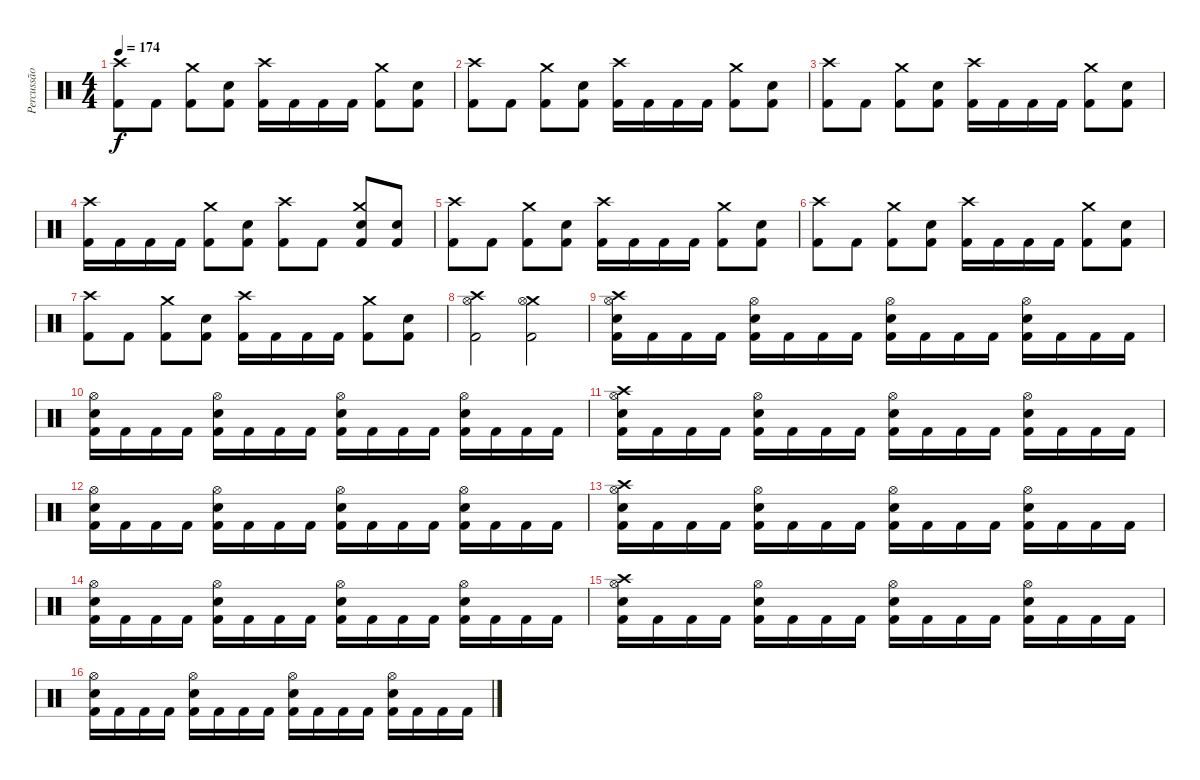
\track ("Percussão" "Percussão") {instrument percussion}
\staff {score}
\articulation defaults
\ts (4 4)
\tempo 174
\clef neutral
\ks c
("Crash high (hit)" "Kick (hit) 2").8{dy f} "Kick (hit) 2".8 ("Crash medium (hit)" "Kick (hit) 2").8 ("Electric Snare (hit)" "Kick (hit) 2").8 ("Crash high (hit)" "Kick (hit) 2").16 "Kick (hit) 2".16 "Kick (hit) 2".16 "Kick (hit) 2".16 ("Crash medium (hit)" "Kick (hit) 2").8 ("Electric Snare (hit)" "Kick (hit) 2").8 |
("Crash high (hit)" "Kick (hit) 2").8 "Kick (hit) 2".8 ("Crash medium (hit)" "Kick (hit) 2").8 ("Electric Snare (hit)" "Kick (hit) 2").8 ("Crash high (hit)" "Kick (hit) 2").16 "Kick (hit) 2".16 "Kick (hit) 2".16 "Kick (hit) 2".16 ("Crash medium (hit)" "Kick (hit) 2").8 ("Electric Snare (hit)" "Kick (hit) 2").8 |
("Crash high (hit)" "Kick (hit) 2").8 "Kick (hit) 2".8 ("Crash medium (hit)" "Kick (hit) 2").8 ("Electric Snare (hit)" "Kick (hit) 2").8 ("Crash high (hit)" "Kick (hit) 2").16 "Kick (hit) 2".16 "Kick (hit) 2".16 "Kick (hit) 2".16 ("Crash medium (hit)" "Kick (hit) 2").8 ("Electric Snare (hit)" "Kick (hit) 2").8 |
("Crash high (hit)" "Kick (hit) 2").16 "Kick (hit) 2".16 "Kick (hit) 2".16 "Kick (hit) 2".16 ("Crash medium (hit)" "Kick (hit) 2").8 ("Electric Snare (hit)" "Kick (hit) 2").8 ("Crash high (hit)" "Kick (hit) 2").8 "Kick (hit) 2".8 ("Crash medium (hit)" "Electric Snare (hit)" "Kick (hit) 2").8 ("Electric Snare (hit)" "Kick (hit) 2").8 |
("Crash high (hit)" "Kick (hit) 2").8 "Kick (hit) 2".8 ("Crash medium (hit)" "Kick (hit) 2").8 ("Electric Snare (hit)" "Kick (hit) 2").8 ("Crash high (hit)" "Kick (hit) 2").16 "Kick (hit) 2".16 "Kick (hit) 2".16 "Kick (hit) 2".16 ("Crash medium (hit)" "Kick (hit) 2").8 ("Electric Snare (hit)" "Kick (hit) 2").8 |
("Crash high (hit)" "Kick (hit) 2").8 "Kick (hit) 2".8 ("Crash medium (hit)" "Kick (hit) 2").8 ("Electric Snare (hit)" "Kick (hit) 2").8 ("Crash high (hit)" "Kick (hit) 2").16 "Kick (hit) 2".16 "Kick (hit) 2".16 "Kick (hit) 2".16 ("Crash medium (hit)" "Kick (hit) 2").8 ("Electric Snare (hit)" "Kick (hit) 2").8 |
("Crash high (hit)" "Kick (hit) 2").8 "Kick (hit) 2".8 ("Crash medium (hit)" "Kick (hit) 2").8 ("Electric Snare (hit)" "Kick (hit) 2").8 ("Crash high (hit)" "Kick (hit) 2").16 "Kick (hit) 2".16 "Kick (hit) 2".16 "Kick (hit) 2".16 ("Crash medium (hit)" "Kick (hit) 2").8 ("Electric Snare (hit)" "Kick (hit) 2").8 |
("Crash high (hit)" "Hi-Hat (open)" "Kick (hit) 2").2 ("Crash medium (hit)" "Hi-Hat (open)" "Kick (hit) 2").2 |
("Crash high (hit)" "Hi-Hat (open)" "Electric Snare (hit)" "Kick (hit) 2").16 "Kick (hit) 2".16 "Kick (hit) 2".16 "Kick (hit) 2".16 ("Hi-Hat (open)" "Electric Snare (hit)" "Kick (hit) 2").16 "Kick (hit) 2".16 "Kick (hit) 2".16 "Kick (hit) 2".16 ("Hi-Hat (open)" "Electric Snare (hit)" "Kick (hit) 2").16 "Kick (hit) 2".16 "Kick (hit) 2".16 "Kick (hit) 2".16 ("Hi-Hat (open)" "Electric Snare (hit)" "Kick (hit) 2").16 "Kick (hit) 2".16 "Kick (hit) 2".16 "Kick (hit) 2".16 |
("Hi-Hat (open)" "Electric Snare (hit)" "Kick (hit) 2").16 "Kick (hit) 2".16 "Kick (hit) 2".16 "Kick (hit) 2".16 ("Hi-Hat (open)" "Electric Snare (hit)" "Kick (hit) 2").16 "Kick (hit) 2".16 "Kick (hit) 2".16 "Kick (hit) 2".16 ("Hi-Hat (open)" "Electric Snare (hit)" "Kick (hit) 2").16 "Kick (hit) 2".16 "Kick (hit) 2".16 "Kick (hit) 2".16 ("Hi-Hat (open)" "Electric Snare (hit)" "Kick (hit) 2").16 "Kick (hit) 2".16 "Kick (hit) 2".16 "Kick (hit) 2".16 |
("Crash high (hit)" "Hi-Hat (open)" "Electric Snare (hit)" "Kick (hit) 2").16 "Kick (hit) 2".16 "Kick (hit) 2".16 "Kick (hit) 2".16 ("Hi-Hat (open)" "Electric Snare (hit)" "Kick (hit) 2").16 "Kick (hit) 2".16 "Kick (hit) 2".16 "Kick (hit) 2".16 ("Hi-Hat (open)" "Electric Snare (hit)" "Kick (hit) 2").16 "Kick (hit) 2".16 "Kick (hit) 2".16 "Kick (hit) 2".16 ("Hi-Hat (open)" "Electric Snare (hit)" "Kick (hit) 2").16 "Kick (hit) 2".16 "Kick (hit) 2".16 "Kick (hit) 2".16 |
("Hi-Hat (open)" "Electric Snare (hit)" "Kick (hit) 2").16 "Kick (hit) 2".16 "Kick (hit) 2".16 "Kick (hit) 2".16 ("Hi-Hat (open)" "Electric Snare (hit)" "Kick (hit) 2").16 "Kick (hit) 2".16 "Kick (hit) 2".16 "Kick (hit) 2".16 ("Hi-Hat (open)" "Electric Snare (hit)" "Kick (hit) 2").16 "Kick (hit) 2".16 "Kick (hit) 2".16 "Kick (hit) 2".16 ("Hi-Hat (open)" "Electric Snare (hit)" "Kick (hit) 2").16 "Kick (hit) 2".16 "Kick (hit) 2".16 "Kick (hit) 2".16 |
("Crash high (hit)" "Hi-Hat (open)" "Electric Snare (hit)" "Kick (hit) 2").16 "Kick (hit) 2".16 "Kick (hit) 2".16 "Kick (hit) 2".16 ("Hi-Hat (open)" "Electric Snare (hit)" "Kick (hit) 2").16 "Kick (hit) 2".16 "Kick (hit) 2".16 "Kick (hit) 2".16 ("Hi-Hat (open)" "Electric Snare (hit)" "Kick (hit) 2").16 "Kick (hit) 2".16 "Kick (hit) 2".16 "Kick (hit) 2".16 ("Hi-Hat (open)" "Electric Snare (hit)" "Kick (hit) 2").16 "Kick (hit) 2".16 "Kick (hit) 2".16 "Kick (hit) 2".16 |
("Hi-Hat (open)" "Electric Snare (hit)" "Kick (hit) 2").16 "Kick (hit) 2".16 "Kick (hit) 2".16 "Kick (hit) 2".16 ("Hi-Hat (open)" "Electric Snare (hit)" "Kick (hit) 2").16 "Kick (hit) 2".16 "Kick (hit) 2".16 "Kick (hit) 2".16 ("Hi-Hat (open)" "Electric Snare (hit)" "Kick (hit) 2").16 "Kick (hit) 2".16 "Kick (hit) 2".16 "Kick (hit) 2".16 ("Hi-Hat (open)" "Electric Snare (hit)" "Kick (hit) 2").16 "Kick (hit) 2".16 "Kick (hit) 2".16 "Kick (hit) 2".16 |
("Crash high (hit)" "Hi-Hat (open)" "Electric Snare (hit)" "Kick (hit) 2").16 "Kick (hit) 2".16 "Kick (hit) 2".16 "Kick (hit) 2".16 ("Hi-Hat (open)" "Electric Snare (hit)" "Kick (hit) 2").16 "Kick (hit) 2".16 "Kick (hit) 2".16 "Kick (hit) 2".16 ("Hi-Hat (open)" "Electric Snare (hit)" "Kick (hit) 2").16 "Kick (hit) 2".16 "Kick (hit) 2".16 "Kick (hit) 2".16 ("Hi-Hat (open)" "Electric Snare (hit)" "Kick (hit) 2").16 "Kick (hit) 2".16 "Kick (hit) 2".16 "Kick (hit) 2".16 |
("Hi-Hat (open)" "Electric Snare (hit)" "Kick (hit) 2").16 "Kick (hit) 2".16 "Kick (hit) 2".16 "Kick (hit) 2".16 ("Hi-Hat (open)" "Electric Snare (hit)" "Kick (hit) 2").16 "Kick (hit) 2".16 "Kick (hit) 2".16 "Kick (hit) 2".16 ("Hi-Hat (open)" "Electric Snare (hit)" "Kick (hit) 2").16 "Kick (hit) 2".16 "Kick (hit) 2".16 "Kick (hit) 2".16 ("Hi-Hat (open)" "Electric Snare (hit)" "Kick (hit) 2").16 "Kick (hit) 2".16 "Kick (hit) 2".16 "Kick (hit) 2".16
